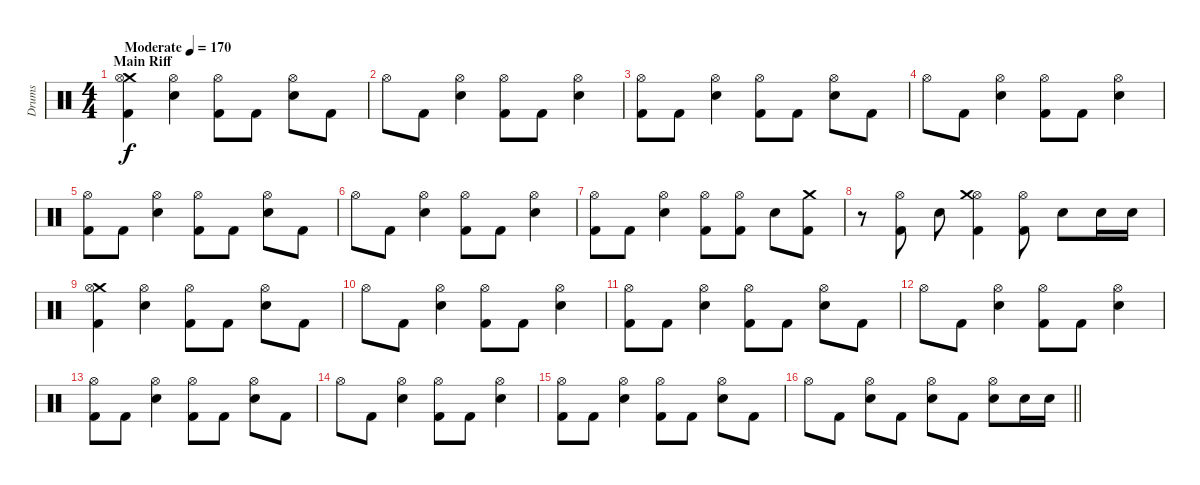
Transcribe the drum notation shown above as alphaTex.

\track ("Drums" "Drums") {instrument percussion}
\staff {score}
\articulation defaults
\ts (4 4)
\section ("" "Main Riff")
\tempo (170 "Moderate")
\clef neutral
\ks c
("Crash medium (hit)" "Hi-Hat (open)" "Kick (hit) 2").4{dy f} ("Hi-Hat (open)" "Electric Snare (hit)").4 ("Hi-Hat (open)" "Kick (hit) 2").8 "Kick (hit) 2".8 ("Hi-Hat (open)" "Electric Snare (hit)").8 "Kick (hit) 2".8 |
"Hi-Hat (open)".8 "Kick (hit) 2".8 ("Hi-Hat (open)" "Electric Snare (hit)").4 ("Hi-Hat (open)" "Kick (hit) 2").8 "Kick (hit) 2".8 ("Hi-Hat (open)" "Electric Snare (hit)").4 |
("Hi-Hat (open)" "Kick (hit) 2").8 "Kick (hit) 2".8 ("Hi-Hat (open)" "Electric Snare (hit)").4 ("Hi-Hat (open)" "Kick (hit) 2").8 "Kick (hit) 2".8 ("Hi-Hat (open)" "Electric Snare (hit)").8 "Kick (hit) 2".8 |
"Hi-Hat (open)".8 "Kick (hit) 2".8 ("Hi-Hat (open)" "Electric Snare (hit)").4 ("Hi-Hat (open)" "Kick (hit) 2").8 "Kick (hit) 2".8 ("Hi-Hat (open)" "Electric Snare (hit)").4 |
("Hi-Hat (open)" "Kick (hit) 2").8 "Kick (hit) 2".8 ("Hi-Hat (open)" "Electric Snare (hit)").4 ("Hi-Hat (open)" "Kick (hit) 2").8 "Kick (hit) 2".8 ("Hi-Hat (open)" "Electric Snare (hit)").8 "Kick (hit) 2".8 |
"Hi-Hat (open)".8 "Kick (hit) 2".8 ("Hi-Hat (open)" "Electric Snare (hit)").4 ("Hi-Hat (open)" "Kick (hit) 2").8 "Kick (hit) 2".8 ("Hi-Hat (open)" "Electric Snare (hit)").4 |
("Hi-Hat (open)" "Kick (hit) 2").8 "Kick (hit) 2".8 ("Hi-Hat (open)" "Electric Snare (hit)").4 ("Hi-Hat (open)" "Kick (hit) 2").8 ("Hi-Hat (open)" "Kick (hit) 2").8 "Electric Snare (hit)".8 ("Crash medium (hit)" "Kick (hit) 2").8 |
r.8 ("Hi-Hat (open)" "Kick (hit) 2").8 "Electric Snare (hit)".8 ("Hi-Hat (open)" "Crash medium (hit)" "Kick (hit) 2").4 ("Hi-Hat (open)" "Kick (hit) 2").8 "Electric Snare (hit)".8 "Electric Snare (hit)".16 "Electric Snare (hit)".16 |
("Crash medium (hit)" "Hi-Hat (open)" "Kick (hit) 2").4 ("Hi-Hat (open)" "Electric Snare (hit)").4 ("Hi-Hat (open)" "Kick (hit) 2").8 "Kick (hit) 2".8 ("Hi-Hat (open)" "Electric Snare (hit)").8 "Kick (hit) 2".8 |
"Hi-Hat (open)".8 "Kick (hit) 2".8 ("Hi-Hat (open)" "Electric Snare (hit)").4 ("Hi-Hat (open)" "Kick (hit) 2").8 "Kick (hit) 2".8 ("Hi-Hat (open)" "Electric Snare (hit)").4 |
("Hi-Hat (open)" "Kick (hit) 2").8 "Kick (hit) 2".8 ("Hi-Hat (open)" "Electric Snare (hit)").4 ("Hi-Hat (open)" "Kick (hit) 2").8 "Kick (hit) 2".8 ("Hi-Hat (open)" "Electric Snare (hit)").8 "Kick (hit) 2".8 |
"Hi-Hat (open)".8 "Kick (hit) 2".8 ("Hi-Hat (open)" "Electric Snare (hit)").4 ("Hi-Hat (open)" "Kick (hit) 2").8 "Kick (hit) 2".8 ("Hi-Hat (open)" "Electric Snare (hit)").4 |
("Hi-Hat (open)" "Kick (hit) 2").8 "Kick (hit) 2".8 ("Hi-Hat (open)" "Electric Snare (hit)").4 ("Hi-Hat (open)" "Kick (hit) 2").8 "Kick (hit) 2".8 ("Hi-Hat (open)" "Electric Snare (hit)").8 "Kick (hit) 2".8 |
"Hi-Hat (open)".8 "Kick (hit) 2".8 ("Hi-Hat (open)" "Electric Snare (hit)").4 ("Hi-Hat (open)" "Kick (hit) 2").8 "Kick (hit) 2".8 ("Hi-Hat (open)" "Electric Snare (hit)").4 |
("Hi-Hat (open)" "Kick (hit) 2").8 "Kick (hit) 2".8 ("Hi-Hat (open)" "Electric Snare (hit)").4 ("Hi-Hat (open)" "Kick (hit) 2").8 "Kick (hit) 2".8 ("Hi-Hat (open)" "Electric Snare (hit)").8 "Kick (hit) 2".8 |
\barLineRight lightlight "Hi-Hat (open)".8 "Kick (hit) 2".8
("Hi-Hat (open)" "Electric Snare (hit)").8 "Kick (hit) 2".8 ("Hi-Hat (open)" "Electric Snare (hit)").8 "Kick (hit) 2".8 ("Hi-Hat (open)" "Electric Snare (hit)").8 "Electric Snare (hit)".16 "Electric Snare (hit)".16
